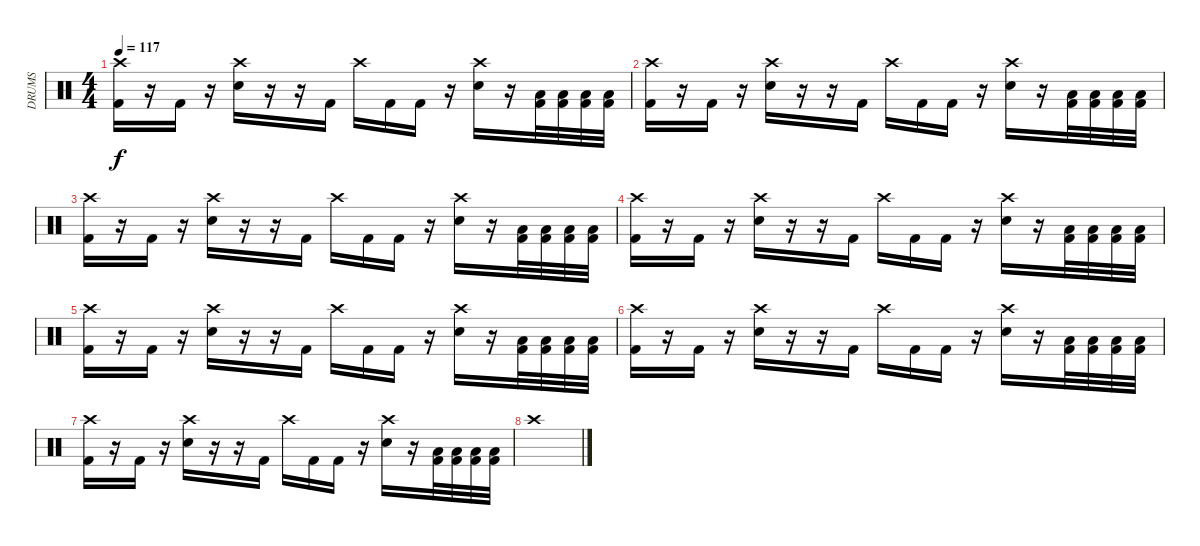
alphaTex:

\track ("DRUMS" "DRUMS") {instrument percussion}
\staff {score}
\articulation defaults
\ts (4 4)
\tempo 117
\clef neutral
\ks c
("Crash high (hit)" "Kick (hit) 2").16{dy f} r.16 "Kick (hit) 2".16 r.16 ("Crash high (hit)" "Electric Snare (hit)").16 r.16 r.16 "Kick (hit) 2".16 "Crash high (hit)".16 "Kick (hit) 2".16 "Kick (hit) 2".16 r.16 ("Crash high (hit)" "Electric Snare (hit)").16 r.16 ("Low Tom (hit)" "Kick (hit) 2").32 ("Low Tom (hit)" "Kick (hit) 2").32 ("Low Tom (hit)" "Kick (hit) 2").32 ("Low Tom (hit)" "Kick (hit) 2").32 |
("Crash high (hit)" "Kick (hit) 2").16 r.16 "Kick (hit) 2".16 r.16 ("Crash high (hit)" "Electric Snare (hit)").16 r.16 r.16 "Kick (hit) 2".16 "Crash high (hit)".16 "Kick (hit) 2".16 "Kick (hit) 2".16 r.16 ("Crash high (hit)" "Electric Snare (hit)").16 r.16 ("Low Tom (hit)" "Kick (hit) 2").32 ("Low Tom (hit)" "Kick (hit) 2").32 ("Low Tom (hit)" "Kick (hit) 2").32 ("Low Tom (hit)" "Kick (hit) 2").32 |
("Crash high (hit)" "Kick (hit) 2").16 r.16 "Kick (hit) 2".16 r.16 ("Crash high (hit)" "Electric Snare (hit)").16 r.16 r.16 "Kick (hit) 2".16 "Crash high (hit)".16 "Kick (hit) 2".16 "Kick (hit) 2".16 r.16 ("Crash high (hit)" "Electric Snare (hit)").16 r.16 ("Low Tom (hit)" "Kick (hit) 2").32 ("Low Tom (hit)" "Kick (hit) 2").32 ("Low Tom (hit)" "Kick (hit) 2").32 ("Low Tom (hit)" "Kick (hit) 2").32 |
("Crash high (hit)" "Kick (hit) 2").16 r.16 "Kick (hit) 2".16 r.16 ("Crash high (hit)" "Electric Snare (hit)").16 r.16 r.16 "Kick (hit) 2".16 "Crash high (hit)".16 "Kick (hit) 2".16 "Kick (hit) 2".16 r.16 ("Crash high (hit)" "Electric Snare (hit)").16 r.16 ("Low Tom (hit)" "Kick (hit) 2").32 ("Low Tom (hit)" "Kick (hit) 2").32 ("Low Tom (hit)" "Kick (hit) 2").32 ("Low Tom (hit)" "Kick (hit) 2").32 |
("Crash high (hit)" "Kick (hit) 2").16 r.16 "Kick (hit) 2".16 r.16 ("Crash high (hit)" "Electric Snare (hit)").16 r.16 r.16 "Kick (hit) 2".16 "Crash high (hit)".16 "Kick (hit) 2".16 "Kick (hit) 2".16 r.16 ("Crash high (hit)" "Electric Snare (hit)").16 r.16 ("Low Tom (hit)" "Kick (hit) 2").32 ("Low Tom (hit)" "Kick (hit) 2").32 ("Low Tom (hit)" "Kick (hit) 2").32 ("Low Tom (hit)" "Kick (hit) 2").32 |
("Crash high (hit)" "Kick (hit) 2").16 r.16 "Kick (hit) 2".16 r.16 ("Crash high (hit)" "Electric Snare (hit)").16 r.16 r.16 "Kick (hit) 2".16 "Crash high (hit)".16 "Kick (hit) 2".16 "Kick (hit) 2".16 r.16 ("Crash high (hit)" "Electric Snare (hit)").16 r.16 ("Low Tom (hit)" "Kick (hit) 2").32 ("Low Tom (hit)" "Kick (hit) 2").32 ("Low Tom (hit)" "Kick (hit) 2").32 ("Low Tom (hit)" "Kick (hit) 2").32 |
("Crash high (hit)" "Kick (hit) 2").16 r.16 "Kick (hit) 2".16 r.16 ("Crash high (hit)" "Electric Snare (hit)").16 r.16 r.16 "Kick (hit) 2".16 "Crash high (hit)".16 "Kick (hit) 2".16 "Kick (hit) 2".16 r.16 ("Crash high (hit)" "Electric Snare (hit)").16 r.16 ("Low Tom (hit)" "Kick (hit) 2").32 ("Low Tom (hit)" "Kick (hit) 2").32 ("Low Tom (hit)" "Kick (hit) 2").32 ("Low Tom (hit)" "Kick (hit) 2").32 |
"Crash high (hit)".1
